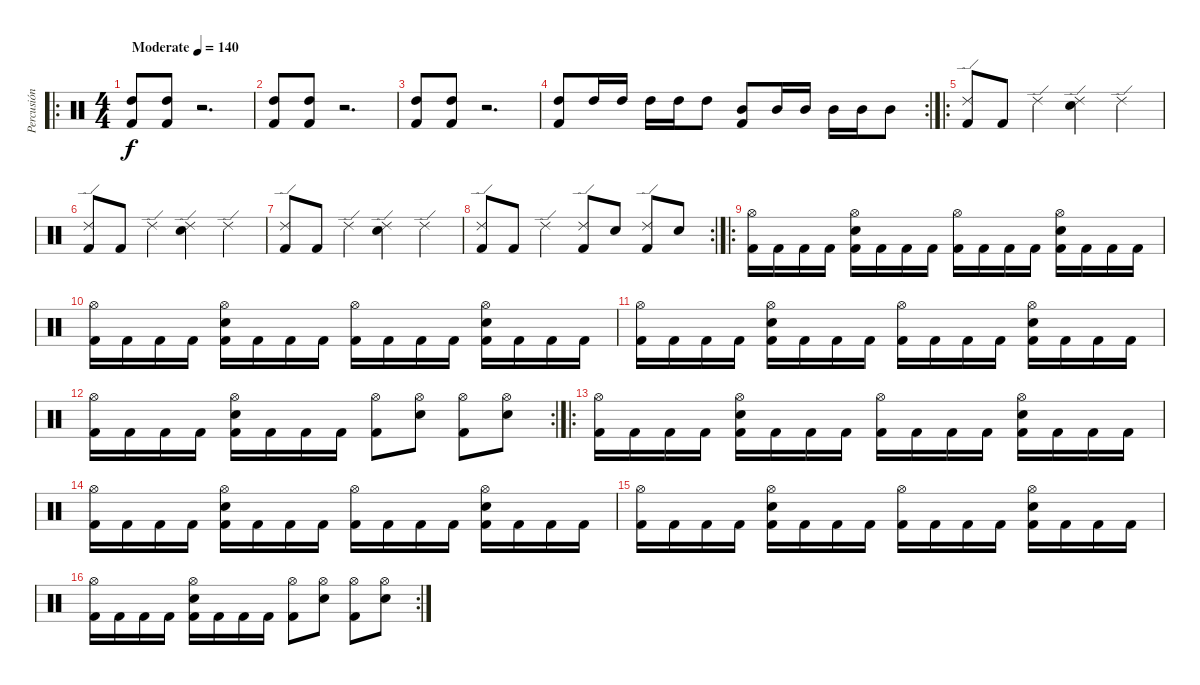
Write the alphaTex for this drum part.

\track ("Percusión" "Percusión") {instrument percussion}
\staff {score}
\articulation defaults
\ro
\ts (4 4)
\tempo (140 "Moderate")
\clef neutral
\ks c
("Kick (hit) 2" "High Tom (hit)").8{dy f} ("Kick (hit) 2" "High Tom (hit)").8 r.2{d} |
("Kick (hit) 2" "High Tom (hit)").8 ("Kick (hit) 2" "High Tom (hit)").8 r.2{d} |
("Kick (hit) 2" "High Tom (hit)").8 ("Kick (hit) 2" "High Tom (hit)").8 r.2{d} |
\rc 2
("Kick (hit) 2" "High Tom (hit)").8 "High Tom (hit)".16 "High Tom (hit)".16 "High Tom (hit)".16 "High Tom (hit)".16 "High Tom (hit)".8 ("Kick (hit) 2" "Mid Tom (hit)").8 "Mid Tom (hit)".16 "Mid Tom (hit)".16 "Mid Tom (hit)".16 "Mid Tom (hit)".16 "Mid Tom (hit)".8 |
\ro
("Kick (hit) 2" "Ride (edge) 2").8 "Kick (hit) 2".8 "Ride (edge) 2".4 ("Electric Snare (hit)" "Ride (edge) 2").4 "Ride (edge) 2".4 |
("Kick (hit) 2" "Ride (edge) 2").8 "Kick (hit) 2".8 "Ride (edge) 2".4 ("Electric Snare (hit)" "Ride (edge) 2").4 "Ride (edge) 2".4 |
("Kick (hit) 2" "Ride (edge) 2").8 "Kick (hit) 2".8 "Ride (edge) 2".4 ("Electric Snare (hit)" "Ride (edge) 2").4 "Ride (edge) 2".4 |
\rc 2
("Kick (hit) 2" "Ride (edge) 2").8 "Kick (hit) 2".8 "Ride (edge) 2".4 ("Kick (hit) 2" "Ride (edge) 2").8 "Electric Snare (hit)".8 ("Kick (hit) 2" "Ride (edge) 2").8 "Electric Snare (hit)".8 |
\ro
("Kick (hit) 2" "Hi-Hat (open)").16 "Kick (hit) 2".16 "Kick (hit) 2".16 "Kick (hit) 2".16 ("Kick (hit) 2" "Electric Snare (hit)" "Hi-Hat (open)").16 "Kick (hit) 2".16 "Kick (hit) 2".16 "Kick (hit) 2".16 ("Kick (hit) 2" "Hi-Hat (open)").16 "Kick (hit) 2".16 "Kick (hit) 2".16 "Kick (hit) 2".16 ("Kick (hit) 2" "Electric Snare (hit)" "Hi-Hat (open)").16 "Kick (hit) 2".16 "Kick (hit) 2".16 "Kick (hit) 2".16 |
("Kick (hit) 2" "Hi-Hat (open)").16 "Kick (hit) 2".16 "Kick (hit) 2".16 "Kick (hit) 2".16 ("Kick (hit) 2" "Electric Snare (hit)" "Hi-Hat (open)").16 "Kick (hit) 2".16 "Kick (hit) 2".16 "Kick (hit) 2".16 ("Kick (hit) 2" "Hi-Hat (open)").16 "Kick (hit) 2".16 "Kick (hit) 2".16 "Kick (hit) 2".16 ("Kick (hit) 2" "Electric Snare (hit)" "Hi-Hat (open)").16 "Kick (hit) 2".16 "Kick (hit) 2".16 "Kick (hit) 2".16 |
("Kick (hit) 2" "Hi-Hat (open)").16 "Kick (hit) 2".16 "Kick (hit) 2".16 "Kick (hit) 2".16 ("Kick (hit) 2" "Electric Snare (hit)" "Hi-Hat (open)").16 "Kick (hit) 2".16 "Kick (hit) 2".16 "Kick (hit) 2".16 ("Kick (hit) 2" "Hi-Hat (open)").16 "Kick (hit) 2".16 "Kick (hit) 2".16 "Kick (hit) 2".16 ("Kick (hit) 2" "Electric Snare (hit)" "Hi-Hat (open)").16 "Kick (hit) 2".16 "Kick (hit) 2".16 "Kick (hit) 2".16 |
\rc 2
("Kick (hit) 2" "Hi-Hat (open)").16 "Kick (hit) 2".16 "Kick (hit) 2".16 "Kick (hit) 2".16 ("Kick (hit) 2" "Electric Snare (hit)" "Hi-Hat (open)").16 "Kick (hit) 2".16 "Kick (hit) 2".16 "Kick (hit) 2".16 ("Kick (hit) 2" "Hi-Hat (open)").8 ("Electric Snare (hit)" "Hi-Hat (open)").8 ("Kick (hit) 2" "Hi-Hat (open)").8 ("Electric Snare (hit)" "Hi-Hat (open)").8 |
\ro
("Kick (hit) 2" "Hi-Hat (open)").16 "Kick (hit) 2".16 "Kick (hit) 2".16 "Kick (hit) 2".16 ("Kick (hit) 2" "Electric Snare (hit)" "Hi-Hat (open)").16 "Kick (hit) 2".16 "Kick (hit) 2".16 "Kick (hit) 2".16 ("Kick (hit) 2" "Hi-Hat (open)").16 "Kick (hit) 2".16 "Kick (hit) 2".16 "Kick (hit) 2".16 ("Kick (hit) 2" "Electric Snare (hit)" "Hi-Hat (open)").16 "Kick (hit) 2".16 "Kick (hit) 2".16 "Kick (hit) 2".16 |
("Kick (hit) 2" "Hi-Hat (open)").16 "Kick (hit) 2".16 "Kick (hit) 2".16 "Kick (hit) 2".16 ("Kick (hit) 2" "Electric Snare (hit)" "Hi-Hat (open)").16 "Kick (hit) 2".16 "Kick (hit) 2".16 "Kick (hit) 2".16 ("Kick (hit) 2" "Hi-Hat (open)").16 "Kick (hit) 2".16 "Kick (hit) 2".16 "Kick (hit) 2".16 ("Kick (hit) 2" "Electric Snare (hit)" "Hi-Hat (open)").16 "Kick (hit) 2".16 "Kick (hit) 2".16 "Kick (hit) 2".16 |
("Kick (hit) 2" "Hi-Hat (open)").16 "Kick (hit) 2".16 "Kick (hit) 2".16 "Kick (hit) 2".16 ("Kick (hit) 2" "Electric Snare (hit)" "Hi-Hat (open)").16 "Kick (hit) 2".16 "Kick (hit) 2".16 "Kick (hit) 2".16 ("Kick (hit) 2" "Hi-Hat (open)").16 "Kick (hit) 2".16 "Kick (hit) 2".16 "Kick (hit) 2".16 ("Kick (hit) 2" "Electric Snare (hit)" "Hi-Hat (open)").16 "Kick (hit) 2".16 "Kick (hit) 2".16 "Kick (hit) 2".16 |
\rc 2
("Kick (hit) 2" "Hi-Hat (open)").16 "Kick (hit) 2".16 "Kick (hit) 2".16 "Kick (hit) 2".16 ("Kick (hit) 2" "Electric Snare (hit)" "Hi-Hat (open)").16 "Kick (hit) 2".16 "Kick (hit) 2".16 "Kick (hit) 2".16 ("Kick (hit) 2" "Hi-Hat (open)").8 ("Electric Snare (hit)" "Hi-Hat (open)").8 ("Kick (hit) 2" "Hi-Hat (open)").8 ("Electric Snare (hit)" "Hi-Hat (open)").8
